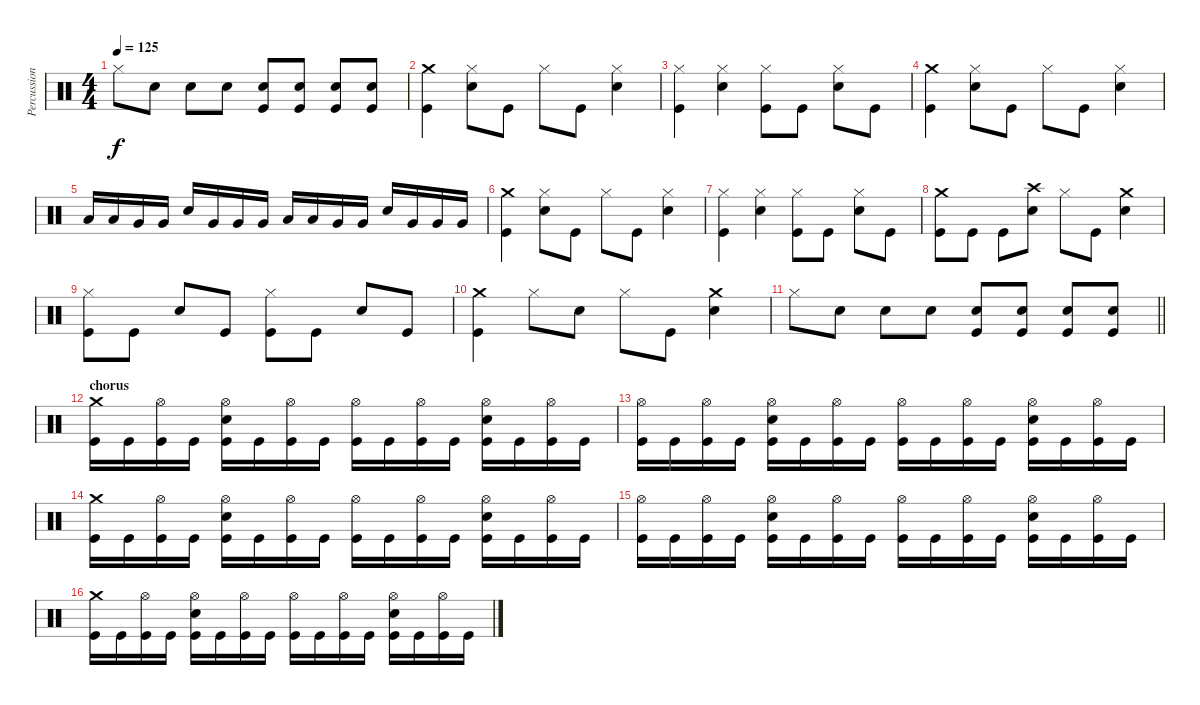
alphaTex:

\track ("Percussion" "Percussion") {instrument percussion}
\staff {score}
\articulation defaults
\ts (4 4)
\tempo 125
\clef neutral
\ks c "Hi-Hat (closed)".8{dy f} "Electric Snare (hit)".8 "Electric Snare (hit)".8 "Electric Snare (hit)".8
("Electric Snare (hit)" "Kick (hit)").8 ("Electric Snare (hit)" "Kick (hit)").8 ("Electric Snare (hit)" "Kick (hit)").8 ("Electric Snare (hit)" "Kick (hit)").8 |
("Crash medium (hit)" "Kick (hit)").4 ("Hi-Hat (closed)" "Electric Snare (hit)").8 "Kick (hit)".8 "Hi-Hat (closed)".8 "Kick (hit)".8 ("Hi-Hat (closed)" "Electric Snare (hit)").4 |
("Hi-Hat (closed)" "Kick (hit)").4 ("Hi-Hat (closed)" "Electric Snare (hit)").4 ("Hi-Hat (closed)" "Kick (hit)").8 "Kick (hit)".8 ("Hi-Hat (closed)" "Electric Snare (hit)").8 "Kick (hit)".8 |
("Crash medium (hit)" "Kick (hit)").4 ("Hi-Hat (closed)" "Electric Snare (hit)").8 "Kick (hit)".8 "Hi-Hat (closed)".8 "Kick (hit)".8 ("Hi-Hat (closed)" "Electric Snare (hit)").4 |
"Low Tom (hit)".16 "Low Tom (hit)".16 "Very Low Tom (hit)".16 "Very Low Tom (hit)".16 "Electric Snare (hit)".16 "Very Low Tom (hit)".16 "Very Low Tom (hit)".16 "Very Low Tom (hit)".16 "Low Tom (hit)".16 "Low Tom (hit)".16 "Very Low Tom (hit)".16 "Very Low Tom (hit)".16 "Electric Snare (hit)".16 "Very Low Tom (hit)".16 "Very Low Tom (hit)".16 "Very Low Tom (hit)".16 |
("Crash medium (hit)" "Kick (hit)").4 ("Hi-Hat (closed)" "Electric Snare (hit)").8 "Kick (hit)".8 "Hi-Hat (closed)".8 "Kick (hit)".8 ("Hi-Hat (closed)" "Electric Snare (hit)").4 |
("Hi-Hat (closed)" "Kick (hit)").4 ("Hi-Hat (closed)" "Electric Snare (hit)").4 ("Hi-Hat (closed)" "Kick (hit)").8 "Kick (hit)".8 ("Hi-Hat (closed)" "Electric Snare (hit)").8 "Kick (hit)".8 |
("Crash medium (hit)" "Kick (hit)").8 "Kick (hit)".8 "Kick (hit)".8 ("Crash high (hit)" "Electric Snare (hit)").8 "Hi-Hat (closed)".8 "Kick (hit)".8 ("Crash medium (hit)" "Electric Snare (hit)").4 |
("Hi-Hat (closed)" "Kick (hit)").8 "Kick (hit)".8 "Electric Snare (hit)".8 "Kick (hit)".8 ("Hi-Hat (closed)" "Kick (hit)").8 "Kick (hit)".8 "Electric Snare (hit)".8 "Kick (hit)".8 |
("Crash medium (hit)" "Kick (hit)").4 "Hi-Hat (closed)".8 "Electric Snare (hit)".8 "Hi-Hat (closed)".8 "Kick (hit)".8 ("Crash medium (hit)" "Electric Snare (hit)").4 |
\barLineRight lightlight "Hi-Hat (closed)".8 "Electric Snare (hit)".8 "Electric Snare (hit)".8 "Electric Snare (hit)".8
("Electric Snare (hit)" "Kick (hit)").8 ("Electric Snare (hit)" "Kick (hit)").8 ("Electric Snare (hit)" "Kick (hit)").8 ("Electric Snare (hit)" "Kick (hit)").8 |
\section ("" "chorus")
("Crash medium (hit)" "Kick (hit)").16 "Kick (hit)".16 ("Hi-Hat (open)" "Kick (hit)").16 "Kick (hit)".16 ("Hi-Hat (open)" "Electric Snare (hit)" "Kick (hit)").16 "Kick (hit)".16 ("Hi-Hat (open)" "Kick (hit)").16 "Kick (hit)".16 ("Hi-Hat (open)" "Kick (hit)").16 "Kick (hit)".16 ("Hi-Hat (open)" "Kick (hit)").16 "Kick (hit)".16 ("Hi-Hat (open)" "Electric Snare (hit)" "Kick (hit)").16 "Kick (hit)".16 ("Hi-Hat (open)" "Kick (hit)").16 "Kick (hit)".16 |
("Hi-Hat (open)" "Kick (hit)").16 "Kick (hit)".16 ("Hi-Hat (open)" "Kick (hit)").16 "Kick (hit)".16 ("Hi-Hat (open)" "Electric Snare (hit)" "Kick (hit)").16 "Kick (hit)".16 ("Hi-Hat (open)" "Kick (hit)").16 "Kick (hit)".16 ("Hi-Hat (open)" "Kick (hit)").16 "Kick (hit)".16 ("Hi-Hat (open)" "Kick (hit)").16 "Kick (hit)".16 ("Hi-Hat (open)" "Electric Snare (hit)" "Kick (hit)").16 "Kick (hit)".16 ("Hi-Hat (open)" "Kick (hit)").16 "Kick (hit)".16 |
("Crash medium (hit)" "Kick (hit)").16 "Kick (hit)".16 ("Hi-Hat (open)" "Kick (hit)").16 "Kick (hit)".16 ("Hi-Hat (open)" "Electric Snare (hit)" "Kick (hit)").16 "Kick (hit)".16 ("Hi-Hat (open)" "Kick (hit)").16 "Kick (hit)".16 ("Hi-Hat (open)" "Kick (hit)").16 "Kick (hit)".16 ("Hi-Hat (open)" "Kick (hit)").16 "Kick (hit)".16 ("Hi-Hat (open)" "Electric Snare (hit)" "Kick (hit)").16 "Kick (hit)".16 ("Hi-Hat (open)" "Kick (hit)").16 "Kick (hit)".16 |
("Hi-Hat (open)" "Kick (hit)").16 "Kick (hit)".16 ("Hi-Hat (open)" "Kick (hit)").16 "Kick (hit)".16 ("Hi-Hat (open)" "Electric Snare (hit)" "Kick (hit)").16 "Kick (hit)".16 ("Hi-Hat (open)" "Kick (hit)").16 "Kick (hit)".16 ("Hi-Hat (open)" "Kick (hit)").16 "Kick (hit)".16 ("Hi-Hat (open)" "Kick (hit)").16 "Kick (hit)".16 ("Hi-Hat (open)" "Electric Snare (hit)" "Kick (hit)").16 "Kick (hit)".16 ("Hi-Hat (open)" "Kick (hit)").16 "Kick (hit)".16 |
("Crash medium (hit)" "Kick (hit)").16 "Kick (hit)".16 ("Hi-Hat (open)" "Kick (hit)").16 "Kick (hit)".16 ("Hi-Hat (open)" "Electric Snare (hit)" "Kick (hit)").16 "Kick (hit)".16 ("Hi-Hat (open)" "Kick (hit)").16 "Kick (hit)".16 ("Hi-Hat (open)" "Kick (hit)").16 "Kick (hit)".16 ("Hi-Hat (open)" "Kick (hit)").16 "Kick (hit)".16 ("Hi-Hat (open)" "Electric Snare (hit)" "Kick (hit)").16 "Kick (hit)".16 ("Hi-Hat (open)" "Kick (hit)").16 "Kick (hit)".16
